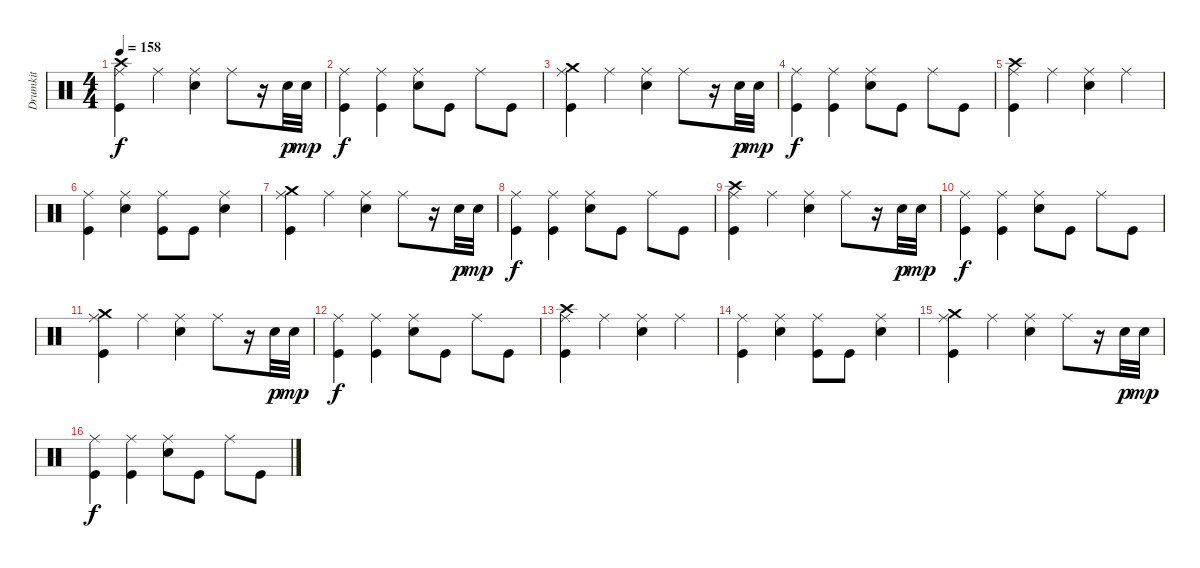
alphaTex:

\track ("Drumkit" "Drumkit") {instrument percussion}
\staff {score}
\articulation defaults
\ts (4 4)
\tempo 158
\clef neutral
\ks c
("Crash high (hit)" "Ride (middle)" "Kick (hit)").4{dy f} "Ride (middle)".4 ("Ride (middle)" "Snare (hit) 2").4 "Ride (middle)".8 r.16 "Snare (hit) 2".32{dy p} "Snare (hit) 2".32{dy mp} |
("Ride (middle)" "Kick (hit)").4{dy f} ("Ride (middle)" "Kick (hit)").4 ("Ride (middle)" "Snare (hit) 2").8 "Kick (hit)".8 "Ride (middle)".8 "Kick (hit)".8 |
("Crash medium (hit)" "Ride (middle)" "Kick (hit)").4 "Ride (middle)".4 ("Ride (middle)" "Snare (hit) 2").4 "Ride (middle)".8 r.16 "Snare (hit) 2".32{dy p} "Snare (hit) 2".32{dy mp} |
("Ride (middle)" "Kick (hit)").4{dy f} ("Ride (middle)" "Kick (hit)").4 ("Ride (middle)" "Snare (hit) 2").8 "Kick (hit)".8 "Ride (middle)".8 "Kick (hit)".8 |
("Crash high (hit)" "Ride (middle)" "Kick (hit)").4 "Ride (middle)".4 ("Ride (middle)" "Snare (hit) 2").4 "Ride (middle)".4 |
("Ride (middle)" "Kick (hit)").4 ("Ride (middle)" "Snare (hit) 2").4 ("Ride (middle)" "Kick (hit)").8 "Kick (hit)".8 ("Ride (middle)" "Snare (hit) 2").4 |
("Crash medium (hit)" "Ride (middle)" "Kick (hit)").4 "Ride (middle)".4 ("Ride (middle)" "Snare (hit) 2").4 "Ride (middle)".8 r.16 "Snare (hit) 2".32{dy p} "Snare (hit) 2".32{dy mp} |
("Ride (middle)" "Kick (hit)").4{dy f} ("Ride (middle)" "Kick (hit)").4 ("Ride (middle)" "Snare (hit) 2").8 "Kick (hit)".8 "Ride (middle)".8 "Kick (hit)".8 |
("Crash high (hit)" "Ride (middle)" "Kick (hit)").4 "Ride (middle)".4 ("Ride (middle)" "Snare (hit) 2").4 "Ride (middle)".8 r.16 "Snare (hit) 2".32{dy p} "Snare (hit) 2".32{dy mp} |
("Ride (middle)" "Kick (hit)").4{dy f} ("Ride (middle)" "Kick (hit)").4 ("Ride (middle)" "Snare (hit) 2").8 "Kick (hit)".8 "Ride (middle)".8 "Kick (hit)".8 |
("Crash medium (hit)" "Ride (middle)" "Kick (hit)").4 "Ride (middle)".4 ("Ride (middle)" "Snare (hit) 2").4 "Ride (middle)".8 r.16 "Snare (hit) 2".32{dy p} "Snare (hit) 2".32{dy mp} |
("Ride (middle)" "Kick (hit)").4{dy f} ("Ride (middle)" "Kick (hit)").4 ("Ride (middle)" "Snare (hit) 2").8 "Kick (hit)".8 "Ride (middle)".8 "Kick (hit)".8 |
("Crash high (hit)" "Ride (middle)" "Kick (hit)").4 "Ride (middle)".4 ("Ride (middle)" "Snare (hit) 2").4 "Ride (middle)".4 |
("Ride (middle)" "Kick (hit)").4 ("Ride (middle)" "Snare (hit) 2").4 ("Ride (middle)" "Kick (hit)").8 "Kick (hit)".8 ("Ride (middle)" "Snare (hit) 2").4 |
("Crash medium (hit)" "Ride (middle)" "Kick (hit)").4 "Ride (middle)".4 ("Ride (middle)" "Snare (hit) 2").4 "Ride (middle)".8 r.16 "Snare (hit) 2".32{dy p} "Snare (hit) 2".32{dy mp} |
("Ride (middle)" "Kick (hit)").4{dy f} ("Ride (middle)" "Kick (hit)").4 ("Ride (middle)" "Snare (hit) 2").8 "Kick (hit)".8 "Ride (middle)".8 "Kick (hit)".8
